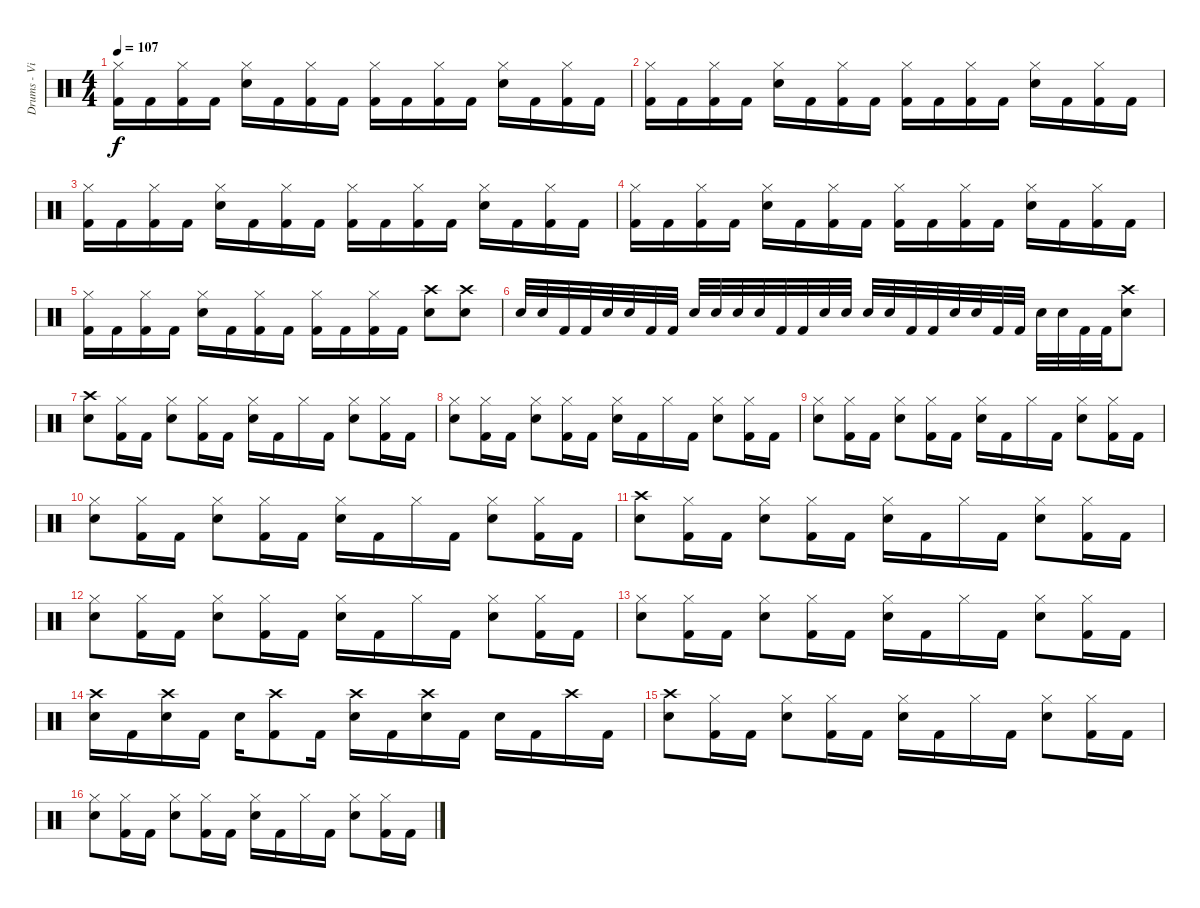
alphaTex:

\track ("Drums - Vinnie Paul" "Drums - Vi") {instrument percussion}
\staff {score}
\articulation defaults
\ts (4 4)
\tempo 107
\clef neutral
\ks c
("Hi-Hat (closed)" "Kick (hit) 2").16{dy f} "Kick (hit) 2".16 ("Hi-Hat (closed)" "Kick (hit) 2").16 "Kick (hit) 2".16 ("Hi-Hat (closed)" "Electric Snare (hit)").16 "Kick (hit) 2".16 ("Hi-Hat (closed)" "Kick (hit) 2").16 "Kick (hit) 2".16 ("Hi-Hat (closed)" "Kick (hit) 2").16 "Kick (hit) 2".16 ("Hi-Hat (closed)" "Kick (hit) 2").16 "Kick (hit) 2".16 ("Hi-Hat (closed)" "Electric Snare (hit)").16 "Kick (hit) 2".16 ("Hi-Hat (closed)" "Kick (hit) 2").16 "Kick (hit) 2".16 |
("Hi-Hat (closed)" "Kick (hit) 2").16 "Kick (hit) 2".16 ("Hi-Hat (closed)" "Kick (hit) 2").16 "Kick (hit) 2".16 ("Hi-Hat (closed)" "Electric Snare (hit)").16 "Kick (hit) 2".16 ("Hi-Hat (closed)" "Kick (hit) 2").16 "Kick (hit) 2".16 ("Hi-Hat (closed)" "Kick (hit) 2").16 "Kick (hit) 2".16 ("Hi-Hat (closed)" "Kick (hit) 2").16 "Kick (hit) 2".16 ("Hi-Hat (closed)" "Electric Snare (hit)").16 "Kick (hit) 2".16 ("Hi-Hat (closed)" "Kick (hit) 2").16 "Kick (hit) 2".16 |
("Hi-Hat (closed)" "Kick (hit) 2").16 "Kick (hit) 2".16 ("Hi-Hat (closed)" "Kick (hit) 2").16 "Kick (hit) 2".16 ("Hi-Hat (closed)" "Electric Snare (hit)").16 "Kick (hit) 2".16 ("Hi-Hat (closed)" "Kick (hit) 2").16 "Kick (hit) 2".16 ("Hi-Hat (closed)" "Kick (hit) 2").16 "Kick (hit) 2".16 ("Hi-Hat (closed)" "Kick (hit) 2").16 "Kick (hit) 2".16 ("Hi-Hat (closed)" "Electric Snare (hit)").16 "Kick (hit) 2".16 ("Hi-Hat (closed)" "Kick (hit) 2").16 "Kick (hit) 2".16 |
("Hi-Hat (closed)" "Kick (hit) 2").16 "Kick (hit) 2".16 ("Hi-Hat (closed)" "Kick (hit) 2").16 "Kick (hit) 2".16 ("Hi-Hat (closed)" "Electric Snare (hit)").16 "Kick (hit) 2".16 ("Hi-Hat (closed)" "Kick (hit) 2").16 "Kick (hit) 2".16 ("Hi-Hat (closed)" "Kick (hit) 2").16 "Kick (hit) 2".16 ("Hi-Hat (closed)" "Kick (hit) 2").16 "Kick (hit) 2".16 ("Hi-Hat (closed)" "Electric Snare (hit)").16 "Kick (hit) 2".16 ("Hi-Hat (closed)" "Kick (hit) 2").16 "Kick (hit) 2".16 |
("Hi-Hat (closed)" "Kick (hit) 2").16 "Kick (hit) 2".16 ("Hi-Hat (closed)" "Kick (hit) 2").16 "Kick (hit) 2".16 ("Hi-Hat (closed)" "Electric Snare (hit)").16 "Kick (hit) 2".16 ("Hi-Hat (closed)" "Kick (hit) 2").16 "Kick (hit) 2".16 ("Hi-Hat (closed)" "Kick (hit) 2").16 "Kick (hit) 2".16 ("Hi-Hat (closed)" "Kick (hit) 2").16 "Kick (hit) 2".16 ("Crash high (hit)" "Electric Snare (hit)").8 ("Crash high (hit)" "Electric Snare (hit)").8 |
"Electric Snare (hit)".32 "Electric Snare (hit)".32 "Kick (hit) 2".32 "Kick (hit) 2".32 "Electric Snare (hit)".32 "Electric Snare (hit)".32 "Kick (hit) 2".32 "Kick (hit) 2".32 "Electric Snare (hit)".32 "Electric Snare (hit)".32 "Electric Snare (hit)".32 "Electric Snare (hit)".32 "Kick (hit) 2".32 "Kick (hit) 2".32 "Electric Snare (hit)".32 "Electric Snare (hit)".32 "Electric Snare (hit)".32 "Electric Snare (hit)".32 "Kick (hit) 2".32 "Kick (hit) 2".32 "Electric Snare (hit)".32 "Electric Snare (hit)".32 "Kick (hit) 2".32 "Kick (hit) 2".32 "Electric Snare (hit)".32 "Electric Snare (hit)".32 "Kick (hit) 2".32 "Kick (hit) 2".32 ("Crash high (hit)" "Electric Snare (hit)").8 |
("Crash high (hit)" "Electric Snare (hit)").8 ("Hi-Hat (closed)" "Kick (hit) 2").16 "Kick (hit) 2".16 ("Hi-Hat (closed)" "Electric Snare (hit)").8 ("Hi-Hat (closed)" "Kick (hit) 2").16 "Kick (hit) 2".16 ("Hi-Hat (closed)" "Electric Snare (hit)").16 "Kick (hit) 2".16 "Hi-Hat (closed)".16 "Kick (hit) 2".16 ("Hi-Hat (closed)" "Electric Snare (hit)").8 ("Hi-Hat (closed)" "Kick (hit) 2").16 "Kick (hit) 2".16 |
("Hi-Hat (closed)" "Electric Snare (hit)").8 ("Hi-Hat (closed)" "Kick (hit) 2").16 "Kick (hit) 2".16 ("Hi-Hat (closed)" "Electric Snare (hit)").8 ("Hi-Hat (closed)" "Kick (hit) 2").16 "Kick (hit) 2".16 ("Hi-Hat (closed)" "Electric Snare (hit)").16 "Kick (hit) 2".16 "Hi-Hat (closed)".16 "Kick (hit) 2".16 ("Hi-Hat (closed)" "Electric Snare (hit)").8 ("Hi-Hat (closed)" "Kick (hit) 2").16 "Kick (hit) 2".16 |
("Hi-Hat (closed)" "Electric Snare (hit)").8 ("Hi-Hat (closed)" "Kick (hit) 2").16 "Kick (hit) 2".16 ("Hi-Hat (closed)" "Electric Snare (hit)").8 ("Hi-Hat (closed)" "Kick (hit) 2").16 "Kick (hit) 2".16 ("Hi-Hat (closed)" "Electric Snare (hit)").16 "Kick (hit) 2".16 "Hi-Hat (closed)".16 "Kick (hit) 2".16 ("Hi-Hat (closed)" "Electric Snare (hit)").8 ("Hi-Hat (closed)" "Kick (hit) 2").16 "Kick (hit) 2".16 |
("Hi-Hat (closed)" "Electric Snare (hit)").8 ("Hi-Hat (closed)" "Kick (hit) 2").16 "Kick (hit) 2".16 ("Hi-Hat (closed)" "Electric Snare (hit)").8 ("Hi-Hat (closed)" "Kick (hit) 2").16 "Kick (hit) 2".16 ("Hi-Hat (closed)" "Electric Snare (hit)").16 "Kick (hit) 2".16 "Hi-Hat (closed)".16 "Kick (hit) 2".16 ("Hi-Hat (closed)" "Electric Snare (hit)").8 ("Hi-Hat (closed)" "Kick (hit) 2").16 "Kick (hit) 2".16 |
("Crash high (hit)" "Electric Snare (hit)").8 ("Hi-Hat (closed)" "Kick (hit) 2").16 "Kick (hit) 2".16 ("Hi-Hat (closed)" "Electric Snare (hit)").8 ("Hi-Hat (closed)" "Kick (hit) 2").16 "Kick (hit) 2".16 ("Hi-Hat (closed)" "Electric Snare (hit)").16 "Kick (hit) 2".16 "Hi-Hat (closed)".16 "Kick (hit) 2".16 ("Hi-Hat (closed)" "Electric Snare (hit)").8 ("Hi-Hat (closed)" "Kick (hit) 2").16 "Kick (hit) 2".16 |
("Hi-Hat (closed)" "Electric Snare (hit)").8 ("Hi-Hat (closed)" "Kick (hit) 2").16 "Kick (hit) 2".16 ("Hi-Hat (closed)" "Electric Snare (hit)").8 ("Hi-Hat (closed)" "Kick (hit) 2").16 "Kick (hit) 2".16 ("Hi-Hat (closed)" "Electric Snare (hit)").16 "Kick (hit) 2".16 "Hi-Hat (closed)".16 "Kick (hit) 2".16 ("Hi-Hat (closed)" "Electric Snare (hit)").8 ("Hi-Hat (closed)" "Kick (hit) 2").16 "Kick (hit) 2".16 |
("Hi-Hat (closed)" "Electric Snare (hit)").8 ("Hi-Hat (closed)" "Kick (hit) 2").16 "Kick (hit) 2".16 ("Hi-Hat (closed)" "Electric Snare (hit)").8 ("Hi-Hat (closed)" "Kick (hit) 2").16 "Kick (hit) 2".16 ("Hi-Hat (closed)" "Electric Snare (hit)").16 "Kick (hit) 2".16 "Hi-Hat (closed)".16 "Kick (hit) 2".16 ("Hi-Hat (closed)" "Electric Snare (hit)").8 ("Hi-Hat (closed)" "Kick (hit) 2").16 "Kick (hit) 2".16 |
("Crash high (hit)" "Electric Snare (hit)").16 "Kick (hit) 2".16 ("Crash high (hit)" "Electric Snare (hit)").16 "Kick (hit) 2".16 "Electric Snare (hit)".16 ("Crash high (hit)" "Kick (hit) 2").8 "Kick (hit) 2".16 ("Crash high (hit)" "Electric Snare (hit)").16 "Kick (hit) 2".16 ("Crash high (hit)" "Electric Snare (hit)").16 "Kick (hit) 2".16 "Electric Snare (hit)".16 "Kick (hit) 2".16 "Crash high (hit)".16 "Kick (hit) 2".16 |
("Crash high (hit)" "Electric Snare (hit)").8 ("Hi-Hat (closed)" "Kick (hit) 2").16 "Kick (hit) 2".16 ("Hi-Hat (closed)" "Electric Snare (hit)").8 ("Hi-Hat (closed)" "Kick (hit) 2").16 "Kick (hit) 2".16 ("Hi-Hat (closed)" "Electric Snare (hit)").16 "Kick (hit) 2".16 "Hi-Hat (closed)".16 "Kick (hit) 2".16 ("Hi-Hat (closed)" "Electric Snare (hit)").8 ("Hi-Hat (closed)" "Kick (hit) 2").16 "Kick (hit) 2".16 |
("Hi-Hat (closed)" "Electric Snare (hit)").8 ("Hi-Hat (closed)" "Kick (hit) 2").16 "Kick (hit) 2".16 ("Hi-Hat (closed)" "Electric Snare (hit)").8 ("Hi-Hat (closed)" "Kick (hit) 2").16 "Kick (hit) 2".16 ("Hi-Hat (closed)" "Electric Snare (hit)").16 "Kick (hit) 2".16 "Hi-Hat (closed)".16 "Kick (hit) 2".16 ("Hi-Hat (closed)" "Electric Snare (hit)").8 ("Hi-Hat (closed)" "Kick (hit) 2").16 "Kick (hit) 2".16
